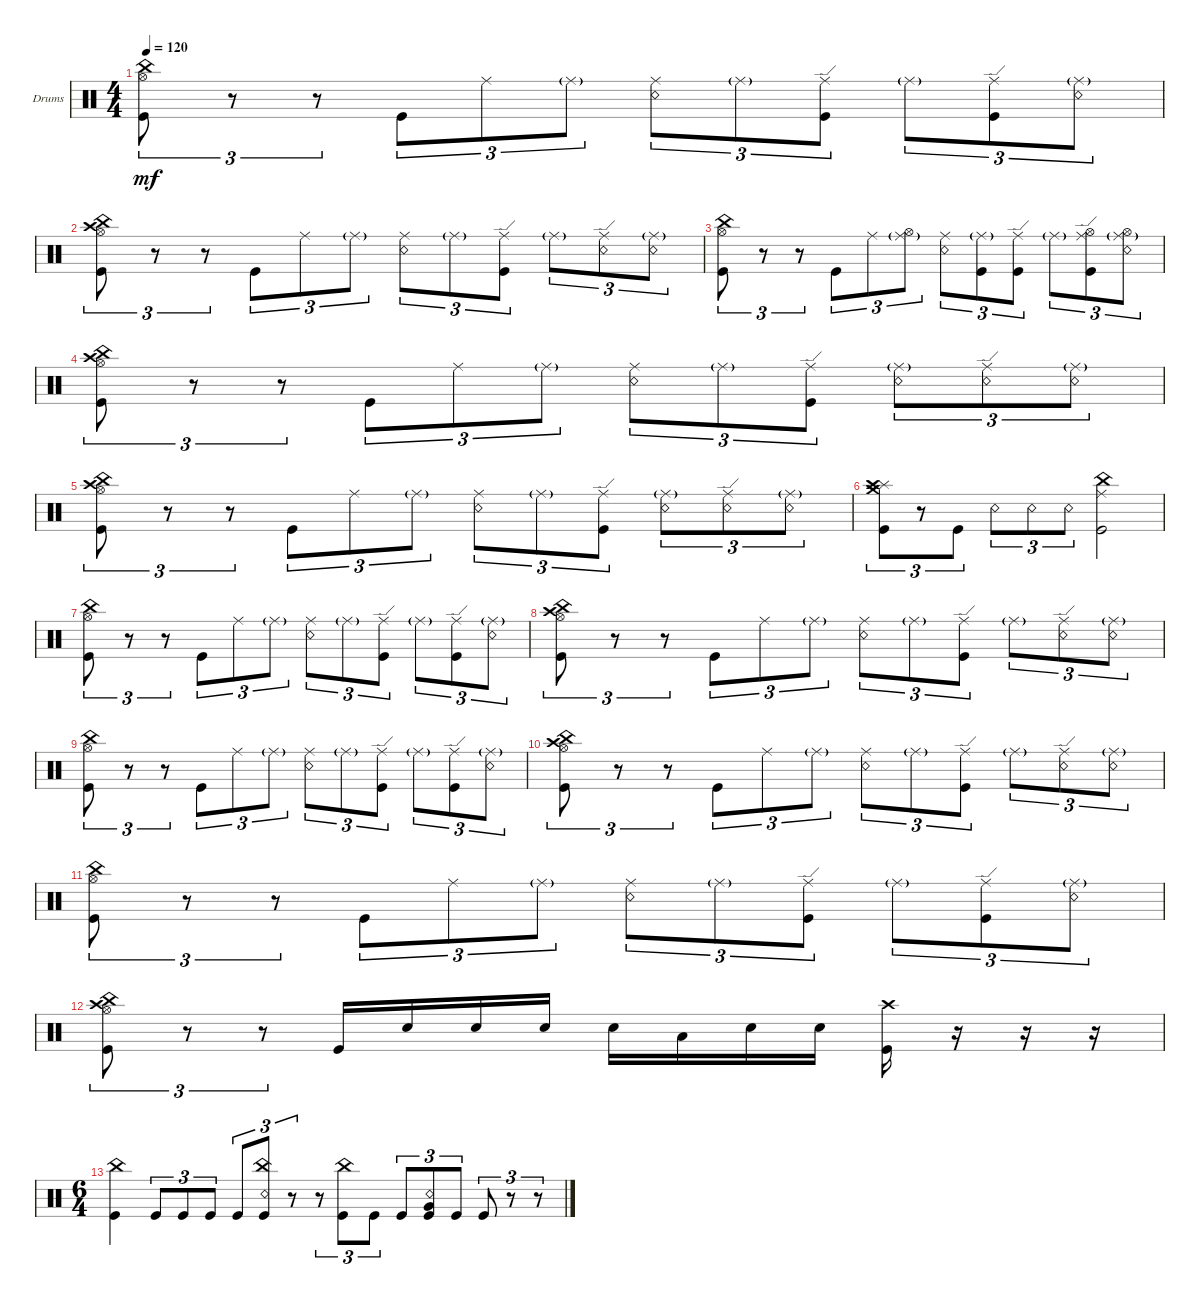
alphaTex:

\defaultSystemsLayout 4
\bracketExtendMode groupsimilarinstruments
\firstSystemTrackNameOrientation horizontal
\otherSystemsTrackNameOrientation horizontal
\track ("Drumkit" "Drums") {instrument percussion}
\staff {score}
\articulation defaults
\ts (4 4)
\tempo 120
\clef neutral
\ks c
("Kick (hit)" "Hi-Hat (open)" "China (hit)").8{tu (3 2) dy mf} r.8{tu (3 2)} r.8{tu (3 2)} "Kick (hit)".8{tu (3 2)} "Ride (middle)".8{tu (3 2)} "Ride (middle)"{g}.8{tu (3 2)} ("Ride (middle)" "Snare (rim shot)").8{tu (3 2)} "Ride (middle)"{g}.8{tu (3 2)} ("Ride (edge)" "Kick (hit)").8{tu (3 2)} "Ride (middle)"{g}.8{tu (3 2)} ("Ride (edge)" "Kick (hit)").8{tu (3 2)} ("Ride (middle)"{g} "Snare (rim shot)").8{tu (3 2)} |
("Kick (hit)" "Hi-Hat (open)" "China (hit)" "Crash high (hit)").8{tu (3 2)} r.8{tu (3 2)} r.8{tu (3 2)} "Kick (hit)".8{tu (3 2)} "Ride (middle)".8{tu (3 2)} "Ride (middle)"{g}.8{tu (3 2)} ("Ride (middle)" "Snare (rim shot)").8{tu (3 2)} "Ride (middle)"{g}.8{tu (3 2)} ("Ride (edge)" "Kick (hit)").8{tu (3 2)} "Ride (middle)"{g}.8{tu (3 2)} ("Ride (edge)" "Snare (rim shot)").8{tu (3 2)} ("Ride (middle)"{g} "Snare (rim shot)").8{tu (3 2)} |
("Kick (hit)" "Hi-Hat (open)" "China (hit)").8{tu (3 2)} r.8{tu (3 2)} r.8{tu (3 2)} "Kick (hit)".8{tu (3 2)} "Ride (middle)".8{tu (3 2)} ("Ride (middle)"{g} "Hi-Hat (open)").8{tu (3 2)} ("Ride (middle)" "Snare (rim shot)").8{tu (3 2)} ("Ride (middle)"{g} "Kick (hit)").8{tu (3 2)} ("Ride (edge)" "Kick (hit)").8{tu (3 2)} "Ride (middle)"{g}.8{tu (3 2)} ("Ride (edge)" "Kick (hit)" "Hi-Hat (open)").8{tu (3 2)} ("Ride (middle)"{g} "Snare (rim shot)" "Hi-Hat (open)").8{tu (3 2)} |
("Kick (hit)" "Hi-Hat (open)" "China (hit)" "Crash high (hit)").8{tu (3 2)} r.8{tu (3 2)} r.8{tu (3 2)} "Kick (hit)".8{tu (3 2)} "Ride (middle)".8{tu (3 2)} "Ride (middle)"{g}.8{tu (3 2)} ("Ride (middle)" "Snare (rim shot)").8{tu (3 2)} "Ride (middle)"{g}.8{tu (3 2)} ("Ride (edge)" "Kick (hit)").8{tu (3 2)} ("Ride (middle)"{g} "Snare (rim shot)").8{tu (3 2)} ("Ride (edge)" "Snare (rim shot)").8{tu (3 2)} ("Ride (middle)"{g} "Snare (rim shot)").8{tu (3 2)} |
("Kick (hit)" "Hi-Hat (open)" "China (hit)" "Crash high (hit)").8{tu (3 2)} r.8{tu (3 2)} r.8{tu (3 2)} "Kick (hit)".8{tu (3 2)} "Ride (middle)".8{tu (3 2)} "Ride (middle)"{g}.8{tu (3 2)} ("Ride (middle)" "Snare (rim shot)").8{tu (3 2)} "Ride (middle)"{g}.8{tu (3 2)} ("Ride (edge)" "Kick (hit)").8{tu (3 2)} ("Ride (middle)"{g} "Snare (rim shot)").8{tu (3 2)} ("Ride (edge)" "Snare (rim shot)").8{tu (3 2)} ("Ride (middle)"{g} "Snare (rim shot)").8{tu (3 2)} |
("Splash (hit)" "Crash medium (hit)" "Crash high (hit)" "Kick (hit)").8{tu (3 2)} r.8{tu (3 2)} "Kick (hit)".8{tu (3 2)} "Snare (rim shot)".8{tu (3 2)} "Snare (rim shot)".8{tu (3 2)} "Snare (rim shot)".8{tu (3 2)} ("Kick (hit)" "Ride (middle)" "China (hit)").2 |
("Kick (hit)" "Hi-Hat (open)" "China (hit)").8{tu (3 2)} r.8{tu (3 2)} r.8{tu (3 2)} "Kick (hit)".8{tu (3 2)} "Ride (middle)".8{tu (3 2)} "Ride (middle)"{g}.8{tu (3 2)} ("Ride (middle)" "Snare (rim shot)").8{tu (3 2)} "Ride (middle)"{g}.8{tu (3 2)} ("Ride (edge)" "Kick (hit)").8{tu (3 2)} "Ride (middle)"{g}.8{tu (3 2)} ("Ride (edge)" "Kick (hit)").8{tu (3 2)} ("Ride (middle)"{g} "Snare (rim shot)").8{tu (3 2)} |
("Kick (hit)" "Hi-Hat (open)" "China (hit)" "Crash high (hit)").8{tu (3 2)} r.8{tu (3 2)} r.8{tu (3 2)} "Kick (hit)".8{tu (3 2)} "Ride (middle)".8{tu (3 2)} "Ride (middle)"{g}.8{tu (3 2)} ("Ride (middle)" "Snare (rim shot)").8{tu (3 2)} "Ride (middle)"{g}.8{tu (3 2)} ("Ride (edge)" "Kick (hit)").8{tu (3 2)} "Ride (middle)"{g}.8{tu (3 2)} ("Ride (edge)" "Snare (rim shot)").8{tu (3 2)} ("Ride (middle)"{g} "Snare (rim shot)").8{tu (3 2)} |
("Kick (hit)" "Hi-Hat (open)" "China (hit)").8{tu (3 2)} r.8{tu (3 2)} r.8{tu (3 2)} "Kick (hit)".8{tu (3 2)} "Ride (middle)".8{tu (3 2)} "Ride (middle)"{g}.8{tu (3 2)} ("Ride (middle)" "Snare (rim shot)").8{tu (3 2)} "Ride (middle)"{g}.8{tu (3 2)} ("Ride (edge)" "Kick (hit)").8{tu (3 2)} "Ride (middle)"{g}.8{tu (3 2)} ("Ride (edge)" "Kick (hit)").8{tu (3 2)} ("Ride (middle)"{g} "Snare (rim shot)").8{tu (3 2)} |
("Kick (hit)" "Hi-Hat (open)" "China (hit)" "Crash high (hit)").8{tu (3 2)} r.8{tu (3 2)} r.8{tu (3 2)} "Kick (hit)".8{tu (3 2)} "Ride (middle)".8{tu (3 2)} "Ride (middle)"{g}.8{tu (3 2)} ("Ride (middle)" "Snare (rim shot)").8{tu (3 2)} "Ride (middle)"{g}.8{tu (3 2)} ("Ride (edge)" "Kick (hit)").8{tu (3 2)} "Ride (middle)"{g}.8{tu (3 2)} ("Ride (edge)" "Snare (rim shot)").8{tu (3 2)} ("Ride (middle)"{g} "Snare (rim shot)").8{tu (3 2)} |
("Kick (hit)" "Hi-Hat (open)" "China (hit)").8{tu (3 2)} r.8{tu (3 2)} r.8{tu (3 2)} "Kick (hit)".8{tu (3 2)} "Ride (middle)".8{tu (3 2)} "Ride (middle)"{g}.8{tu (3 2)} ("Ride (middle)" "Snare (rim shot)").8{tu (3 2)} "Ride (middle)"{g}.8{tu (3 2)} ("Ride (edge)" "Kick (hit)").8{tu (3 2)} "Ride (middle)"{g}.8{tu (3 2)} ("Ride (edge)" "Kick (hit)").8{tu (3 2)} ("Ride (middle)"{g} "Snare (rim shot)").8{tu (3 2)} |
("Kick (hit)" "Hi-Hat (open)" "China (hit)" "Crash high (hit)").8{tu (3 2)} r.8{tu (3 2)} r.8{tu (3 2)} "Kick (hit)".16 "Snare (hit) 2".16 "Snare (hit) 2".16 "Snare (hit) 2".16 "Snare (hit) 2".16 "Low Tom (hit)".16 "Snare (hit) 2".16 "Snare (hit) 2".16 ("Crash high (hit)" "Kick (hit)").16 r.16 r.16 r.16 |
\ts (6 4)
("Kick (hit)" "China (hit)").4 "Kick (hit)".8{tu (3 2)} "Kick (hit)".8{tu (3 2)} "Kick (hit)".8{tu (3 2)} "Kick (hit)".8{tu (3 2)} ("Kick (hit)" "Snare (rim shot)" "China (hit)").8{tu (3 2)} r.8{tu (3 2)} r.8{tu (3 2)} ("Kick (hit)" "China (hit)").8{tu (3 2)} "Kick (hit)".8{tu (3 2)} "Kick (hit)".8{tu (3 2)} ("Kick (hit)" "Snare (rim shot)" "Very Low Tom (hit)").8{tu (3 2)} "Kick (hit)".8{tu (3 2)} "Kick (hit)".8{tu (3 2)} r.8{tu (3 2)} r.8{tu (3 2)}
